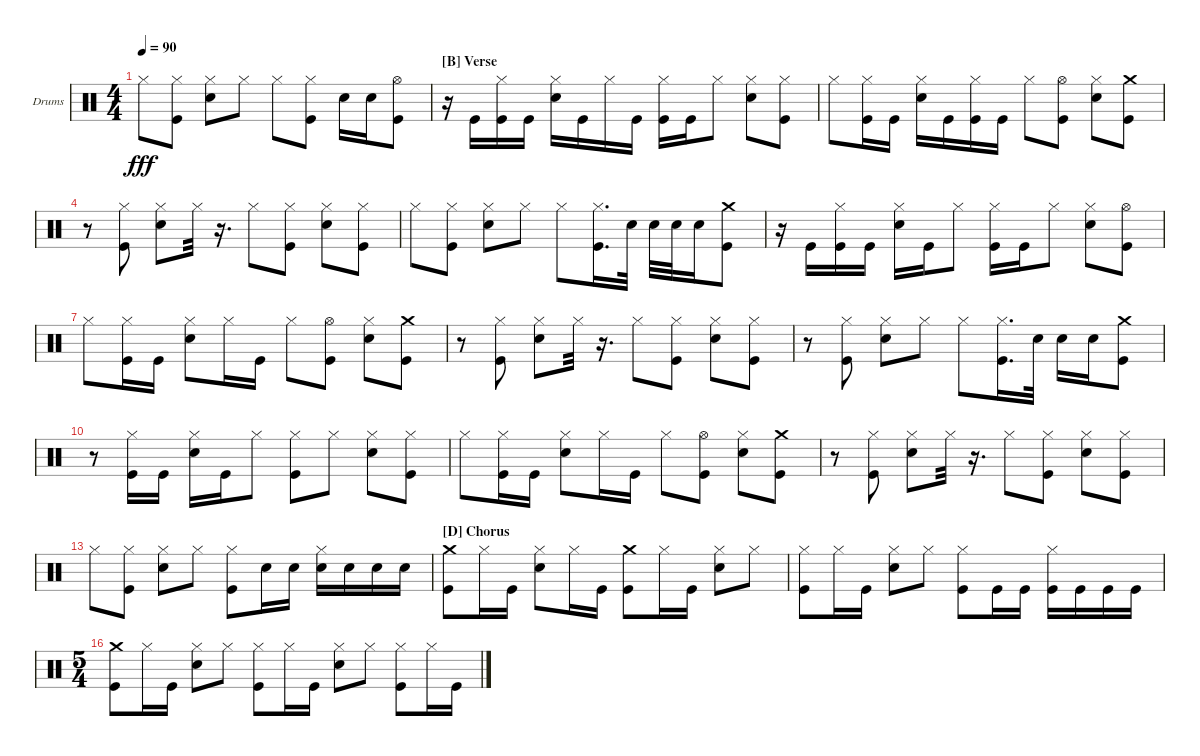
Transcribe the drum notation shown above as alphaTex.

\bracketExtendMode nobrackets
\firstSystemTrackNameOrientation horizontal
\otherSystemsTrackNameOrientation horizontal
\defaultBarNumberDisplay FirstOfSystem
\track ("Drums" "Drums") {instrument percussion}
\staff {score}
\articulation defaults
\ts (4 4)
\tempo 90
\clef neutral
\ks c "Hi-Hat (closed)".8{dy fff}
("Hi-Hat (closed)" "Kick (hit)").8 ("Hi-Hat (closed)" "Snare (hit) 2").8 "Hi-Hat (closed)".8 "Hi-Hat (closed)".8 ("Kick (hit)" "Hi-Hat (closed)").8 "Snare (hit) 2".16 "Snare (hit) 2".16 ("Kick (hit)" "Hi-Hat (open)").8 |
\section ("B" "Verse")
r.16 "Kick (hit)".16 ("Hi-Hat (closed)" "Kick (hit)").16 "Kick (hit)".16 ("Hi-Hat (closed)" "Snare (hit) 2").16 "Kick (hit)".16 "Hi-Hat (closed)".16 "Kick (hit)".16 ("Kick (hit)" "Hi-Hat (closed)").16 "Kick (hit)".16 "Hi-Hat (closed)".8 ("Hi-Hat (closed)" "Snare (hit) 2").8 ("Kick (hit)" "Hi-Hat (closed)").8 |
"Hi-Hat (closed)".8 ("Hi-Hat (closed)" "Kick (hit)").16 "Kick (hit)".16 ("Hi-Hat (closed)" "Snare (hit) 2").16 "Kick (hit)".16 ("Kick (hit)" "Hi-Hat (closed)").16 "Kick (hit)".16 "Hi-Hat (closed)".8 ("Kick (hit)" "Hi-Hat (open)").8 ("Hi-Hat (closed)" "Snare (hit) 2").8 ("Crash medium (hit)" "Kick (hit)").8 |
r.8 ("Hi-Hat (closed)" "Kick (hit)").8 ("Snare (hit) 2" "Hi-Hat (closed)").8 "Hi-Hat (closed)".32 r.16{d} "Hi-Hat (closed)".8 ("Kick (hit)" "Hi-Hat (closed)").8 ("Snare (hit) 2" "Hi-Hat (closed)").8 ("Kick (hit)" "Hi-Hat (closed)").8 |
"Hi-Hat (closed)".8 ("Hi-Hat (closed)" "Kick (hit)").8 ("Hi-Hat (closed)" "Snare (hit) 2").8 "Hi-Hat (closed)".8 "Hi-Hat (closed)".8 ("Hi-Hat (closed)" "Kick (hit)").16{d} "Snare (hit) 2".32 "Snare (hit) 2".32 "Snare (hit) 2".32 "Snare (hit) 2".16 ("Crash medium (hit)" "Kick (hit)").8 |
r.16 "Kick (hit)".16 ("Hi-Hat (closed)" "Kick (hit)").16 "Kick (hit)".16 ("Hi-Hat (closed)" "Snare (hit) 2").16 "Kick (hit)".16 "Hi-Hat (closed)".8 ("Kick (hit)" "Hi-Hat (closed)").16 "Kick (hit)".16 "Hi-Hat (closed)".8 ("Hi-Hat (closed)" "Snare (hit) 2").8 ("Kick (hit)" "Hi-Hat (open)").8 |
"Hi-Hat (closed)".8 ("Hi-Hat (closed)" "Kick (hit)").16 "Kick (hit)".16 ("Snare (hit) 2" "Hi-Hat (closed)").8 "Hi-Hat (closed)".16 "Kick (hit)".16 "Hi-Hat (closed)".8 ("Kick (hit)" "Hi-Hat (open)").8 ("Snare (hit) 2" "Hi-Hat (closed)").8 ("Crash medium (hit)" "Kick (hit)").8 |
r.8 ("Hi-Hat (closed)" "Kick (hit)").8 ("Snare (hit) 2" "Hi-Hat (closed)").8 "Hi-Hat (closed)".32 r.16{d} "Hi-Hat (closed)".8 ("Kick (hit)" "Hi-Hat (closed)").8 ("Hi-Hat (closed)" "Snare (hit) 2").8 ("Hi-Hat (closed)" "Kick (hit)").8 |
r.8 ("Hi-Hat (closed)" "Kick (hit)").8 ("Hi-Hat (closed)" "Snare (hit) 2").8 "Hi-Hat (closed)".8 "Hi-Hat (closed)".8 ("Hi-Hat (closed)" "Kick (hit)").16{d} "Snare (hit) 2".32 "Snare (hit) 2".16 "Snare (hit) 2".16 ("Crash medium (hit)" "Kick (hit)").8 |
r.8 ("Hi-Hat (closed)" "Kick (hit)").16 "Kick (hit)".16 ("Hi-Hat (closed)" "Snare (hit) 2").16 "Kick (hit)".16 "Hi-Hat (closed)".8 ("Hi-Hat (closed)" "Kick (hit)").8 "Hi-Hat (closed)".8 ("Hi-Hat (closed)" "Snare (hit) 2").8 ("Hi-Hat (closed)" "Kick (hit)").8 |
"Hi-Hat (closed)".8 ("Hi-Hat (closed)" "Kick (hit)").16 "Kick (hit)".16 ("Snare (hit) 2" "Hi-Hat (closed)").8 "Hi-Hat (closed)".16 "Kick (hit)".16 "Hi-Hat (closed)".8 ("Kick (hit)" "Hi-Hat (open)").8 ("Snare (hit) 2" "Hi-Hat (closed)").8 ("Crash medium (hit)" "Kick (hit)").8 |
r.8 ("Hi-Hat (closed)" "Kick (hit)").8 ("Snare (hit) 2" "Hi-Hat (closed)").8 "Hi-Hat (closed)".32 r.16{d} "Hi-Hat (closed)".8 ("Kick (hit)" "Hi-Hat (closed)").8 ("Snare (hit) 2" "Hi-Hat (closed)").8 ("Kick (hit)" "Hi-Hat (closed)").8 |
"Hi-Hat (closed)".8 ("Hi-Hat (closed)" "Kick (hit)").8 ("Hi-Hat (closed)" "Snare (hit) 2").8 "Hi-Hat (closed)".8 ("Hi-Hat (closed)" "Kick (hit)").8 "Snare (hit) 2".16 "Snare (hit) 2".16 ("Snare (hit) 2" "Hi-Hat (closed)").16 "Snare (hit) 2".16 "Snare (hit) 2".16 "Snare (hit) 2".16 |
\section ("D" "Chorus")
("Crash medium (hit)" "Kick (hit)").8 "Hi-Hat (closed)".16 "Kick (hit)".16 ("Hi-Hat (closed)" "Snare (hit) 2").8 "Hi-Hat (closed)".16 "Kick (hit)".16 ("Kick (hit)" "Crash medium (hit)").8 "Hi-Hat (closed)".16 "Kick (hit)".16 ("Hi-Hat (closed)" "Snare (hit) 2").8 "Hi-Hat (closed)".8 |
("Hi-Hat (closed)" "Kick (hit)").8 "Hi-Hat (closed)".16 "Kick (hit)".16 ("Snare (hit) 2" "Hi-Hat (closed)").8 "Hi-Hat (closed)".8 ("Kick (hit)" "Hi-Hat (closed)").8 "Kick (hit)".16 "Kick (hit)".16 ("Hi-Hat (closed)" "Kick (hit)").16 "Kick (hit)".16 "Kick (hit)".16 "Kick (hit)".16 |
\ts (5 4)
("Crash medium (hit)" "Kick (hit)").8 "Hi-Hat (closed)".16 "Kick (hit)".16 ("Snare (hit) 2" "Hi-Hat (closed)").8 "Hi-Hat (closed)".8 ("Kick (hit)" "Hi-Hat (closed)").8 "Hi-Hat (closed)".16 "Kick (hit)".16 ("Snare (hit) 2" "Hi-Hat (closed)").8 "Hi-Hat (closed)".8 ("Hi-Hat (closed)" "Kick (hit)").8 "Hi-Hat (closed)".16 "Kick (hit)".16
